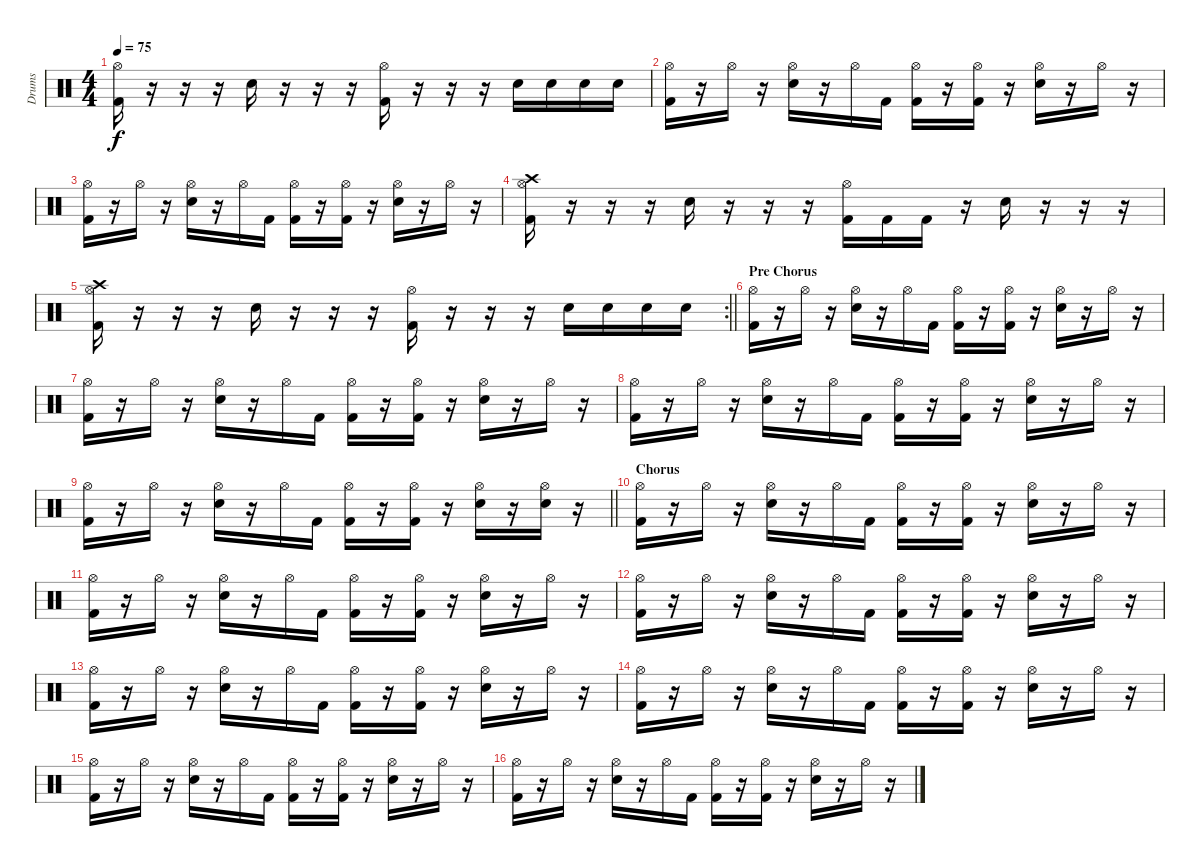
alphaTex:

\track ("Drums" "Drums") {instrument percussion}
\staff {score}
\articulation defaults
\ts (4 4)
\tempo 75
\clef neutral
\ks c
("Hi-Hat (open)" "Kick (hit) 2").16{dy f} r.16 r.16 r.16 "Electric Snare (hit)".16 r.16 r.16 r.16 ("Hi-Hat (open)" "Kick (hit) 2").16 r.16 r.16 r.16 "Electric Snare (hit)".16 "Electric Snare (hit)".16 "Electric Snare (hit)".16 "Electric Snare (hit)".16 |
("Hi-Hat (open)" "Kick (hit) 2").16 r.16 "Hi-Hat (open)".16 r.16 ("Hi-Hat (open)" "Electric Snare (hit)").16 r.16 "Hi-Hat (open)".16 "Kick (hit) 2".16 ("Hi-Hat (open)" "Kick (hit) 2").16 r.16 ("Hi-Hat (open)" "Kick (hit) 2").16 r.16 ("Hi-Hat (open)" "Electric Snare (hit)").16 r.16 "Hi-Hat (open)".16 r.16 |
("Hi-Hat (open)" "Kick (hit) 2").16 r.16 "Hi-Hat (open)".16 r.16 ("Hi-Hat (open)" "Electric Snare (hit)").16 r.16 "Hi-Hat (open)".16 "Kick (hit) 2".16 ("Hi-Hat (open)" "Kick (hit) 2").16 r.16 ("Hi-Hat (open)" "Kick (hit) 2").16 r.16 ("Hi-Hat (open)" "Electric Snare (hit)").16 r.16 "Hi-Hat (open)".16 r.16 |
("Hi-Hat (open)" "Crash high (hit)" "Kick (hit) 2").16 r.16 r.16 r.16 "Electric Snare (hit)".16 r.16 r.16 r.16 ("Hi-Hat (open)" "Kick (hit) 2").16 "Kick (hit) 2".16 "Kick (hit) 2".16 r.16 "Electric Snare (hit)".16 r.16 r.16 r.16 |
\rc 2
\barLineRight lightlight
("Hi-Hat (open)" "Crash high (hit)" "Kick (hit) 2").16 r.16 r.16 r.16 "Electric Snare (hit)".16 r.16 r.16 r.16 ("Hi-Hat (open)" "Kick (hit) 2").16 r.16 r.16 r.16 "Electric Snare (hit)".16 "Electric Snare (hit)".16 "Electric Snare (hit)".16 "Electric Snare (hit)".16 |
\section ("" "Pre Chorus")
("Hi-Hat (open)" "Kick (hit) 2").16 r.16 "Hi-Hat (open)".16 r.16 ("Hi-Hat (open)" "Electric Snare (hit)").16 r.16 "Hi-Hat (open)".16 "Kick (hit) 2".16 ("Hi-Hat (open)" "Kick (hit) 2").16 r.16 ("Hi-Hat (open)" "Kick (hit) 2").16 r.16 ("Hi-Hat (open)" "Electric Snare (hit)").16 r.16 "Hi-Hat (open)".16 r.16 |
("Hi-Hat (open)" "Kick (hit) 2").16 r.16 "Hi-Hat (open)".16 r.16 ("Hi-Hat (open)" "Electric Snare (hit)").16 r.16 "Hi-Hat (open)".16 "Kick (hit) 2".16 ("Hi-Hat (open)" "Kick (hit) 2").16 r.16 ("Hi-Hat (open)" "Kick (hit) 2").16 r.16 ("Hi-Hat (open)" "Electric Snare (hit)").16 r.16 "Hi-Hat (open)".16 r.16 |
("Hi-Hat (open)" "Kick (hit) 2").16 r.16 "Hi-Hat (open)".16 r.16 ("Hi-Hat (open)" "Electric Snare (hit)").16 r.16 "Hi-Hat (open)".16 "Kick (hit) 2".16 ("Hi-Hat (open)" "Kick (hit) 2").16 r.16 ("Hi-Hat (open)" "Kick (hit) 2").16 r.16 ("Hi-Hat (open)" "Electric Snare (hit)").16 r.16 "Hi-Hat (open)".16 r.16 |
\barLineRight lightlight
("Hi-Hat (open)" "Kick (hit) 2").16 r.16 "Hi-Hat (open)".16 r.16 ("Hi-Hat (open)" "Electric Snare (hit)").16 r.16 "Hi-Hat (open)".16 "Kick (hit) 2".16 ("Hi-Hat (open)" "Kick (hit) 2").16 r.16 ("Hi-Hat (open)" "Kick (hit) 2").16 r.16 ("Hi-Hat (open)" "Electric Snare (hit)").16 r.16 ("Hi-Hat (open)" "Electric Snare (hit)").16 r.16 |
\section ("" "Chorus")
("Hi-Hat (open)" "Kick (hit) 2").16 r.16 "Hi-Hat (open)".16 r.16 ("Hi-Hat (open)" "Electric Snare (hit)").16 r.16 "Hi-Hat (open)".16 "Kick (hit) 2".16 ("Hi-Hat (open)" "Kick (hit) 2").16 r.16 ("Hi-Hat (open)" "Kick (hit) 2").16 r.16 ("Hi-Hat (open)" "Electric Snare (hit)").16 r.16 "Hi-Hat (open)".16 r.16 |
("Hi-Hat (open)" "Kick (hit) 2").16 r.16 "Hi-Hat (open)".16 r.16 ("Hi-Hat (open)" "Electric Snare (hit)").16 r.16 "Hi-Hat (open)".16 "Kick (hit) 2".16 ("Hi-Hat (open)" "Kick (hit) 2").16 r.16 ("Hi-Hat (open)" "Kick (hit) 2").16 r.16 ("Hi-Hat (open)" "Electric Snare (hit)").16 r.16 "Hi-Hat (open)".16 r.16 |
("Hi-Hat (open)" "Kick (hit) 2").16 r.16 "Hi-Hat (open)".16 r.16 ("Hi-Hat (open)" "Electric Snare (hit)").16 r.16 "Hi-Hat (open)".16 "Kick (hit) 2".16 ("Hi-Hat (open)" "Kick (hit) 2").16 r.16 ("Hi-Hat (open)" "Kick (hit) 2").16 r.16 ("Hi-Hat (open)" "Electric Snare (hit)").16 r.16 "Hi-Hat (open)".16 r.16 |
("Hi-Hat (open)" "Kick (hit) 2").16 r.16 "Hi-Hat (open)".16 r.16 ("Hi-Hat (open)" "Electric Snare (hit)").16 r.16 "Hi-Hat (open)".16 "Kick (hit) 2".16 ("Hi-Hat (open)" "Kick (hit) 2").16 r.16 ("Hi-Hat (open)" "Kick (hit) 2").16 r.16 ("Hi-Hat (open)" "Electric Snare (hit)").16 r.16 "Hi-Hat (open)".16 r.16 |
("Hi-Hat (open)" "Kick (hit) 2").16 r.16 "Hi-Hat (open)".16 r.16 ("Hi-Hat (open)" "Electric Snare (hit)").16 r.16 "Hi-Hat (open)".16 "Kick (hit) 2".16 ("Hi-Hat (open)" "Kick (hit) 2").16 r.16 ("Hi-Hat (open)" "Kick (hit) 2").16 r.16 ("Hi-Hat (open)" "Electric Snare (hit)").16 r.16 "Hi-Hat (open)".16 r.16 |
("Hi-Hat (open)" "Kick (hit) 2").16 r.16 "Hi-Hat (open)".16 r.16 ("Hi-Hat (open)" "Electric Snare (hit)").16 r.16 "Hi-Hat (open)".16 "Kick (hit) 2".16 ("Hi-Hat (open)" "Kick (hit) 2").16 r.16 ("Hi-Hat (open)" "Kick (hit) 2").16 r.16 ("Hi-Hat (open)" "Electric Snare (hit)").16 r.16 "Hi-Hat (open)".16 r.16 |
("Hi-Hat (open)" "Kick (hit) 2").16 r.16 "Hi-Hat (open)".16 r.16 ("Hi-Hat (open)" "Electric Snare (hit)").16 r.16 "Hi-Hat (open)".16 "Kick (hit) 2".16 ("Hi-Hat (open)" "Kick (hit) 2").16 r.16 ("Hi-Hat (open)" "Kick (hit) 2").16 r.16 ("Hi-Hat (open)" "Electric Snare (hit)").16 r.16 "Hi-Hat (open)".16 r.16
